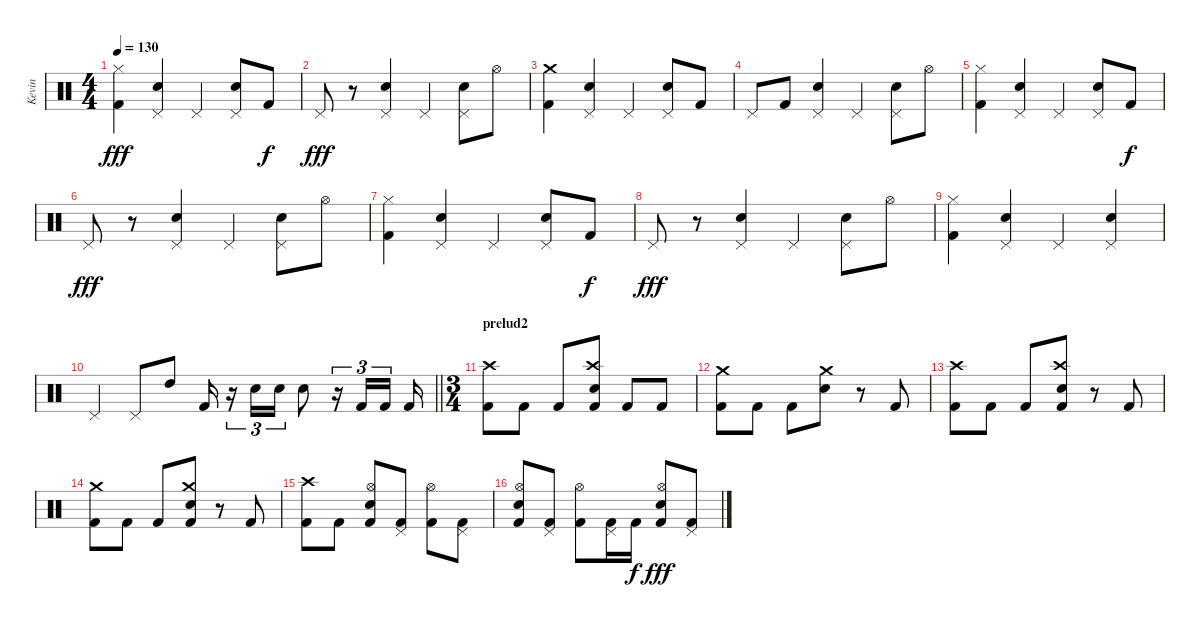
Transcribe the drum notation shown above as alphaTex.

\track ("Kevin" "Kevin") {instrument percussion}
\staff {score}
\articulation defaults
\ts (4 4)
\tempo 130
\clef neutral
\ks c
("Hi-Hat (closed)" "Kick (hit) 2").4{dy fff} ("Pedal Hi-Hat (hit)" "Electric Snare (hit)").4 "Pedal Hi-Hat (hit)".4 ("Pedal Hi-Hat (hit)" "Electric Snare (hit)").8 "Kick (hit) 2".8{dy f} |
"Pedal Hi-Hat (hit)".8{dy fff} r.8 ("Pedal Hi-Hat (hit)" "Electric Snare (hit)").4 "Pedal Hi-Hat (hit)".4 ("Pedal Hi-Hat (hit)" "Electric Snare (hit)").8 "Hi-Hat (open)".8 |
("Crash medium (hit)" "Kick (hit) 2").4 ("Pedal Hi-Hat (hit)" "Electric Snare (hit)").4 "Pedal Hi-Hat (hit)".4 ("Pedal Hi-Hat (hit)" "Electric Snare (hit)").8 "Kick (hit) 2".8 |
"Pedal Hi-Hat (hit)".8 "Kick (hit) 2".8 ("Pedal Hi-Hat (hit)" "Electric Snare (hit)").4 "Pedal Hi-Hat (hit)".4 ("Pedal Hi-Hat (hit)" "Electric Snare (hit)").8 "Hi-Hat (open)".8 |
("Hi-Hat (closed)" "Kick (hit) 2").4 ("Pedal Hi-Hat (hit)" "Electric Snare (hit)").4 "Pedal Hi-Hat (hit)".4 ("Pedal Hi-Hat (hit)" "Electric Snare (hit)").8 "Kick (hit) 2".8{dy f} |
"Pedal Hi-Hat (hit)".8{dy fff} r.8 ("Pedal Hi-Hat (hit)" "Electric Snare (hit)").4 "Pedal Hi-Hat (hit)".4 ("Pedal Hi-Hat (hit)" "Electric Snare (hit)").8 "Hi-Hat (open)".8 |
("Hi-Hat (closed)" "Kick (hit) 2").4 ("Pedal Hi-Hat (hit)" "Electric Snare (hit)").4 "Pedal Hi-Hat (hit)".4 ("Pedal Hi-Hat (hit)" "Electric Snare (hit)").8 "Kick (hit) 2".8{dy f} |
"Pedal Hi-Hat (hit)".8{dy fff} r.8 ("Pedal Hi-Hat (hit)" "Electric Snare (hit)").4 "Pedal Hi-Hat (hit)".4 ("Pedal Hi-Hat (hit)" "Electric Snare (hit)").8 "Hi-Hat (open)".8 |
("Hi-Hat (closed)" "Kick (hit) 2").4 ("Pedal Hi-Hat (hit)" "Electric Snare (hit)").4 "Pedal Hi-Hat (hit)".4 ("Pedal Hi-Hat (hit)" "Electric Snare (hit)").4 |
\barLineRight lightlight "Pedal Hi-Hat (hit)".4 "Pedal Hi-Hat (hit)".8 "High Tom (hit)".8 "Kick (hit) 2".16
r.16{tu (3 2)} "Electric Snare (hit)".16{tu (3 2)} "Electric Snare (hit)".16{tu (3 2)} "Electric Snare (hit)".8 r.16{tu (3 2)} "Kick (hit) 2".16{tu (3 2)} "Kick (hit) 2".16{tu (3 2) beam splitsecondary} "Kick (hit) 2".16 |
\ts (3 4)
\section ("" "prelud2")
("Crash high (hit)" "Kick (hit) 2").8 "Kick (hit) 2".8 "Kick (hit) 2".8 ("Crash high (hit)" "Snare (hit) 2" "Kick (hit) 2").8 "Kick (hit) 2".8 "Kick (hit) 2".8 |
("Crash medium (hit)" "Kick (hit) 2").8 "Kick (hit) 2".8 "Kick (hit) 2".8 ("Crash medium (hit)" "Snare (hit) 2").8 r.8 "Kick (hit) 2".8 |
("Crash high (hit)" "Kick (hit) 2").8 "Kick (hit) 2".8 "Kick (hit) 2".8 ("Crash high (hit)" "Snare (hit) 2" "Kick (hit) 2").8 r.8 "Kick (hit) 2".8 |
("Crash medium (hit)" "Kick (hit) 2").8 "Kick (hit) 2".8 "Kick (hit) 2".8 ("Crash medium (hit)" "Snare (hit) 2" "Kick (hit) 2").8 r.8 "Kick (hit) 2".8 |
("Crash high (hit)" "Kick (hit) 2").8 "Kick (hit) 2".8 ("Snare (hit) 2" "Hi-Hat (open)" "Kick (hit) 2").8 ("Pedal Hi-Hat (hit)" "Kick (hit) 2").8 ("Hi-Hat (open)" "Kick (hit) 2").8 ("Pedal Hi-Hat (hit)" "Kick (hit) 2").8 |
("Snare (hit) 2" "Hi-Hat (open)" "Kick (hit) 2").8 ("Pedal Hi-Hat (hit)" "Kick (hit) 2").8 ("Hi-Hat (open)" "Kick (hit) 2").8 ("Pedal Hi-Hat (hit)" "Kick (hit) 2").16 "Kick (hit) 2".16{dy f} ("Snare (hit) 2" "Hi-Hat (open)" "Kick (hit) 2").8{dy fff} ("Pedal Hi-Hat (hit)" "Kick (hit) 2").8
